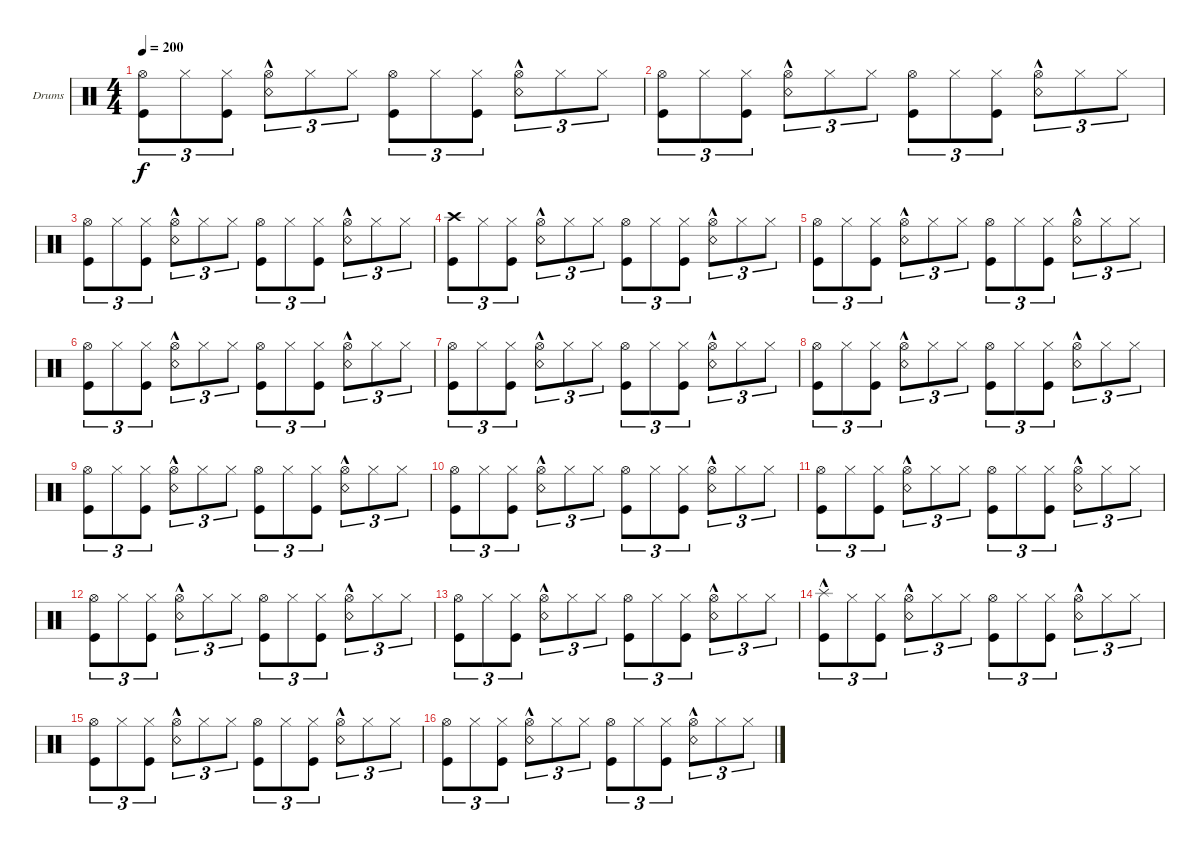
\bracketExtendMode groupsimilarinstruments
\firstSystemTrackNameOrientation horizontal
\otherSystemsTrackNameOrientation horizontal
\track ("Drumkit" "Drums") {instrument percussion}
\staff {score}
\articulation defaults
\ts (4 4)
\tempo 200
\clef neutral
\ks c
("Kick (hit)" "Hi-Hat (open)").8{tu (3 2) dy f} "Hi-Hat (closed)".8{tu (3 2)} ("Kick (hit)" "Hi-Hat (closed)").8{tu (3 2)} ("Snare (rim shot)"{hac} "Hi-Hat (open)").8{tu (3 2)} "Hi-Hat (closed)".8{tu (3 2)} "Hi-Hat (closed)".8{tu (3 2)} ("Kick (hit)" "Hi-Hat (open)").8{tu (3 2)} "Hi-Hat (closed)".8{tu (3 2)} ("Kick (hit)" "Hi-Hat (closed)").8{tu (3 2)} ("Snare (rim shot)"{hac} "Hi-Hat (open)").8{tu (3 2)} "Hi-Hat (closed)".8{tu (3 2)} "Hi-Hat (closed)".8{tu (3 2)} |
("Kick (hit)" "Hi-Hat (open)").8{tu (3 2)} "Hi-Hat (closed)".8{tu (3 2)} ("Kick (hit)" "Hi-Hat (closed)").8{tu (3 2)} ("Snare (rim shot)"{hac} "Hi-Hat (open)").8{tu (3 2)} "Hi-Hat (closed)".8{tu (3 2)} "Hi-Hat (closed)".8{tu (3 2)} ("Kick (hit)" "Hi-Hat (open)").8{tu (3 2)} "Hi-Hat (closed)".8{tu (3 2)} ("Kick (hit)" "Hi-Hat (closed)").8{tu (3 2)} ("Snare (rim shot)"{hac} "Hi-Hat (open)").8{tu (3 2)} "Hi-Hat (closed)".8{tu (3 2)} "Hi-Hat (closed)".8{tu (3 2)} |
("Kick (hit)" "Hi-Hat (open)").8{tu (3 2)} "Hi-Hat (closed)".8{tu (3 2)} ("Kick (hit)" "Hi-Hat (closed)").8{tu (3 2)} ("Snare (rim shot)"{hac} "Hi-Hat (open)").8{tu (3 2)} "Hi-Hat (closed)".8{tu (3 2)} "Hi-Hat (closed)".8{tu (3 2)} ("Kick (hit)" "Hi-Hat (open)").8{tu (3 2)} "Hi-Hat (closed)".8{tu (3 2)} ("Kick (hit)" "Hi-Hat (closed)").8{tu (3 2)} ("Snare (rim shot)"{hac} "Hi-Hat (open)").8{tu (3 2)} "Hi-Hat (closed)".8{tu (3 2)} "Hi-Hat (closed)".8{tu (3 2)} |
("Kick (hit)" "Crash high (hit)").8{tu (3 2)} "Hi-Hat (closed)".8{tu (3 2)} ("Kick (hit)" "Hi-Hat (closed)").8{tu (3 2)} ("Snare (rim shot)"{hac} "Hi-Hat (open)").8{tu (3 2)} "Hi-Hat (closed)".8{tu (3 2)} "Hi-Hat (closed)".8{tu (3 2)} ("Kick (hit)" "Hi-Hat (open)").8{tu (3 2)} "Hi-Hat (closed)".8{tu (3 2)} ("Kick (hit)" "Hi-Hat (closed)").8{tu (3 2)} ("Snare (rim shot)"{hac} "Hi-Hat (open)").8{tu (3 2)} "Hi-Hat (closed)".8{tu (3 2)} "Hi-Hat (closed)".8{tu (3 2)} |
("Kick (hit)" "Hi-Hat (open)").8{tu (3 2)} "Hi-Hat (closed)".8{tu (3 2)} ("Kick (hit)" "Hi-Hat (closed)").8{tu (3 2)} ("Snare (rim shot)"{hac} "Hi-Hat (open)").8{tu (3 2)} "Hi-Hat (closed)".8{tu (3 2)} "Hi-Hat (closed)".8{tu (3 2)} ("Kick (hit)" "Hi-Hat (open)").8{tu (3 2)} "Hi-Hat (closed)".8{tu (3 2)} ("Kick (hit)" "Hi-Hat (closed)").8{tu (3 2)} ("Snare (rim shot)"{hac} "Hi-Hat (open)").8{tu (3 2)} "Hi-Hat (closed)".8{tu (3 2)} "Hi-Hat (closed)".8{tu (3 2)} |
("Kick (hit)" "Hi-Hat (open)").8{tu (3 2)} "Hi-Hat (closed)".8{tu (3 2)} ("Kick (hit)" "Hi-Hat (closed)").8{tu (3 2)} ("Snare (rim shot)"{hac} "Hi-Hat (open)").8{tu (3 2)} "Hi-Hat (closed)".8{tu (3 2)} "Hi-Hat (closed)".8{tu (3 2)} ("Kick (hit)" "Hi-Hat (open)").8{tu (3 2)} "Hi-Hat (closed)".8{tu (3 2)} ("Kick (hit)" "Hi-Hat (closed)").8{tu (3 2)} ("Snare (rim shot)"{hac} "Hi-Hat (open)").8{tu (3 2)} "Hi-Hat (closed)".8{tu (3 2)} "Hi-Hat (closed)".8{tu (3 2)} |
("Kick (hit)" "Hi-Hat (open)").8{tu (3 2)} "Hi-Hat (closed)".8{tu (3 2)} ("Kick (hit)" "Hi-Hat (closed)").8{tu (3 2)} ("Snare (rim shot)"{hac} "Hi-Hat (open)").8{tu (3 2)} "Hi-Hat (closed)".8{tu (3 2)} "Hi-Hat (closed)".8{tu (3 2)} ("Kick (hit)" "Hi-Hat (open)").8{tu (3 2)} "Hi-Hat (closed)".8{tu (3 2)} ("Kick (hit)" "Hi-Hat (closed)").8{tu (3 2)} ("Snare (rim shot)"{hac} "Hi-Hat (open)").8{tu (3 2)} "Hi-Hat (closed)".8{tu (3 2)} "Hi-Hat (closed)".8{tu (3 2)} |
("Kick (hit)" "Hi-Hat (open)").8{tu (3 2)} "Hi-Hat (closed)".8{tu (3 2)} ("Kick (hit)" "Hi-Hat (closed)").8{tu (3 2)} ("Snare (rim shot)"{hac} "Hi-Hat (open)").8{tu (3 2)} "Hi-Hat (closed)".8{tu (3 2)} "Hi-Hat (closed)".8{tu (3 2)} ("Kick (hit)" "Hi-Hat (open)").8{tu (3 2)} "Hi-Hat (closed)".8{tu (3 2)} ("Kick (hit)" "Hi-Hat (closed)").8{tu (3 2)} ("Snare (rim shot)"{hac} "Hi-Hat (open)").8{tu (3 2)} "Hi-Hat (closed)".8{tu (3 2)} "Hi-Hat (closed)".8{tu (3 2)} |
("Kick (hit)" "Hi-Hat (open)").8{tu (3 2)} "Hi-Hat (closed)".8{tu (3 2)} ("Kick (hit)" "Hi-Hat (closed)").8{tu (3 2)} ("Snare (rim shot)"{hac} "Hi-Hat (open)").8{tu (3 2)} "Hi-Hat (closed)".8{tu (3 2)} "Hi-Hat (closed)".8{tu (3 2)} ("Kick (hit)" "Hi-Hat (open)").8{tu (3 2)} "Hi-Hat (closed)".8{tu (3 2)} ("Kick (hit)" "Hi-Hat (closed)").8{tu (3 2)} ("Snare (rim shot)"{hac} "Hi-Hat (open)").8{tu (3 2)} "Hi-Hat (closed)".8{tu (3 2)} "Hi-Hat (closed)".8{tu (3 2)} |
("Kick (hit)" "Hi-Hat (open)").8{tu (3 2)} "Hi-Hat (closed)".8{tu (3 2)} ("Kick (hit)" "Hi-Hat (closed)").8{tu (3 2)} ("Snare (rim shot)"{hac} "Hi-Hat (open)").8{tu (3 2)} "Hi-Hat (closed)".8{tu (3 2)} "Hi-Hat (closed)".8{tu (3 2)} ("Kick (hit)" "Hi-Hat (open)").8{tu (3 2)} "Hi-Hat (closed)".8{tu (3 2)} ("Kick (hit)" "Hi-Hat (closed)").8{tu (3 2)} ("Snare (rim shot)"{hac} "Hi-Hat (open)").8{tu (3 2)} "Hi-Hat (closed)".8{tu (3 2)} "Hi-Hat (closed)".8{tu (3 2)} |
("Kick (hit)" "Hi-Hat (open)").8{tu (3 2)} "Hi-Hat (closed)".8{tu (3 2)} ("Kick (hit)" "Hi-Hat (closed)").8{tu (3 2)} ("Snare (rim shot)"{hac} "Hi-Hat (open)").8{tu (3 2)} "Hi-Hat (closed)".8{tu (3 2)} "Hi-Hat (closed)".8{tu (3 2)} ("Kick (hit)" "Hi-Hat (open)").8{tu (3 2)} "Hi-Hat (closed)".8{tu (3 2)} ("Kick (hit)" "Hi-Hat (closed)").8{tu (3 2)} ("Snare (rim shot)"{hac} "Hi-Hat (open)").8{tu (3 2)} "Hi-Hat (closed)".8{tu (3 2)} "Hi-Hat (closed)".8{tu (3 2)} |
("Kick (hit)" "Hi-Hat (open)").8{tu (3 2)} "Hi-Hat (closed)".8{tu (3 2)} ("Kick (hit)" "Hi-Hat (closed)").8{tu (3 2)} ("Snare (rim shot)"{hac} "Hi-Hat (open)").8{tu (3 2)} "Hi-Hat (closed)".8{tu (3 2)} "Hi-Hat (closed)".8{tu (3 2)} ("Kick (hit)" "Hi-Hat (open)").8{tu (3 2)} "Hi-Hat (closed)".8{tu (3 2)} ("Kick (hit)" "Hi-Hat (closed)").8{tu (3 2)} ("Snare (rim shot)"{hac} "Hi-Hat (open)").8{tu (3 2)} "Hi-Hat (closed)".8{tu (3 2)} "Hi-Hat (closed)".8{tu (3 2)} |
("Kick (hit)" "Hi-Hat (open)").8{tu (3 2)} "Hi-Hat (closed)".8{tu (3 2)} ("Kick (hit)" "Hi-Hat (closed)").8{tu (3 2)} ("Snare (rim shot)"{hac} "Hi-Hat (open)").8{tu (3 2)} "Hi-Hat (closed)".8{tu (3 2)} "Hi-Hat (closed)".8{tu (3 2)} ("Kick (hit)" "Hi-Hat (open)").8{tu (3 2)} "Hi-Hat (closed)".8{tu (3 2)} ("Kick (hit)" "Hi-Hat (closed)").8{tu (3 2)} ("Snare (rim shot)"{hac} "Hi-Hat (open)").8{tu (3 2)} "Hi-Hat (closed)".8{tu (3 2)} "Hi-Hat (closed)".8{tu (3 2)} |
("Kick (hit)" "Splash (hit)"{hac}).8{tu (3 2)} "Hi-Hat (closed)".8{tu (3 2)} ("Kick (hit)" "Hi-Hat (closed)").8{tu (3 2)} ("Snare (rim shot)"{hac} "Hi-Hat (open)").8{tu (3 2)} "Hi-Hat (closed)".8{tu (3 2)} "Hi-Hat (closed)".8{tu (3 2)} ("Kick (hit)" "Hi-Hat (open)").8{tu (3 2)} "Hi-Hat (closed)".8{tu (3 2)} ("Kick (hit)" "Hi-Hat (closed)").8{tu (3 2)} ("Snare (rim shot)"{hac} "Hi-Hat (open)").8{tu (3 2)} "Hi-Hat (closed)".8{tu (3 2)} "Hi-Hat (closed)".8{tu (3 2)} |
("Kick (hit)" "Hi-Hat (open)").8{tu (3 2)} "Hi-Hat (closed)".8{tu (3 2)} ("Kick (hit)" "Hi-Hat (closed)").8{tu (3 2)} ("Snare (rim shot)"{hac} "Hi-Hat (open)").8{tu (3 2)} "Hi-Hat (closed)".8{tu (3 2)} "Hi-Hat (closed)".8{tu (3 2)} ("Kick (hit)" "Hi-Hat (open)").8{tu (3 2)} "Hi-Hat (closed)".8{tu (3 2)} ("Kick (hit)" "Hi-Hat (closed)").8{tu (3 2)} ("Snare (rim shot)"{hac} "Hi-Hat (open)").8{tu (3 2)} "Hi-Hat (closed)".8{tu (3 2)} "Hi-Hat (closed)".8{tu (3 2)} |
("Kick (hit)" "Hi-Hat (open)").8{tu (3 2)} "Hi-Hat (closed)".8{tu (3 2)} ("Kick (hit)" "Hi-Hat (closed)").8{tu (3 2)} ("Snare (rim shot)"{hac} "Hi-Hat (open)").8{tu (3 2)} "Hi-Hat (closed)".8{tu (3 2)} "Hi-Hat (closed)".8{tu (3 2)} ("Kick (hit)" "Hi-Hat (open)").8{tu (3 2)} "Hi-Hat (closed)".8{tu (3 2)} ("Kick (hit)" "Hi-Hat (closed)").8{tu (3 2)} ("Snare (rim shot)"{hac} "Hi-Hat (open)").8{tu (3 2)} "Hi-Hat (closed)".8{tu (3 2)} "Hi-Hat (closed)".8{tu (3 2)}
